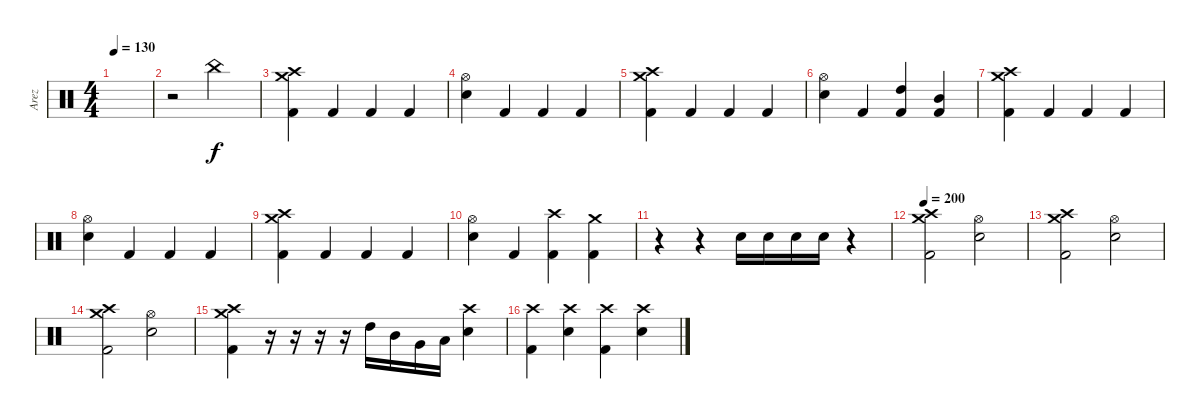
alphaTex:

\track ("Arez" "Arez") {instrument percussion}
\staff {score}
\articulation defaults
\ts (4 4)
\tempo 130
\clef neutral
\ks c
|
r.2 "China (hit)".2 |
("Crash high (hit)" "Crash medium (hit)" "Kick (hit) 2").4 "Kick (hit) 2".4 "Kick (hit) 2".4 "Kick (hit) 2".4 |
("Hi-Hat (open)" "Electric Snare (hit)").4 "Kick (hit) 2".4 "Kick (hit) 2".4 "Kick (hit) 2".4 |
("Crash high (hit)" "Crash medium (hit)" "Kick (hit) 2").4 "Kick (hit) 2".4 "Kick (hit) 2".4 "Kick (hit) 2".4 |
("Hi-Hat (open)" "Electric Snare (hit)").4 "Kick (hit) 2".4 ("Kick (hit) 2" "High Tom (hit)").4 ("Kick (hit) 2" "Mid Tom (hit)").4 |
("Crash high (hit)" "Crash medium (hit)" "Kick (hit) 2").4 "Kick (hit) 2".4 "Kick (hit) 2".4 "Kick (hit) 2".4 |
("Hi-Hat (open)" "Electric Snare (hit)").4 "Kick (hit) 2".4 "Kick (hit) 2".4 "Kick (hit) 2".4 |
("Crash high (hit)" "Crash medium (hit)" "Kick (hit) 2").4 "Kick (hit) 2".4 "Kick (hit) 2".4 "Kick (hit) 2".4 |
("Hi-Hat (open)" "Electric Snare (hit)").4 "Kick (hit) 2".4 ("Kick (hit) 2" "Crash high (hit)").4 ("Kick (hit) 2" "Crash medium (hit)").4 |
r.4 r.4 "Electric Snare (hit)".16 "Electric Snare (hit)".16 "Electric Snare (hit)".16 "Electric Snare (hit)".16 r.4 |
\tempo 200
("Crash high (hit)" "Crash medium (hit)" "Kick (hit) 2").2 ("Hi-Hat (open)" "Electric Snare (hit)").2 |
("Crash high (hit)" "Crash medium (hit)" "Kick (hit) 2").2 ("Hi-Hat (open)" "Electric Snare (hit)").2 |
("Crash high (hit)" "Crash medium (hit)" "Kick (hit) 2").2 ("Hi-Hat (open)" "Electric Snare (hit)").2 |
("Crash high (hit)" "Crash medium (hit)" "Kick (hit) 2").4 r.16 r.16 r.16 r.16 "High Tom (hit)".16 "Mid Tom (hit)".16 "Very Low Tom (hit)".16 "Low Floor Tom (hit)".16 ("Crash high (hit)" "Electric Snare (hit)").4 |
("Kick (hit) 2" "Crash high (hit)").4 ("Crash high (hit)" "Electric Snare (hit)").4 ("Kick (hit) 2" "Crash high (hit)").4 ("Crash high (hit)" "Electric Snare (hit)").4
